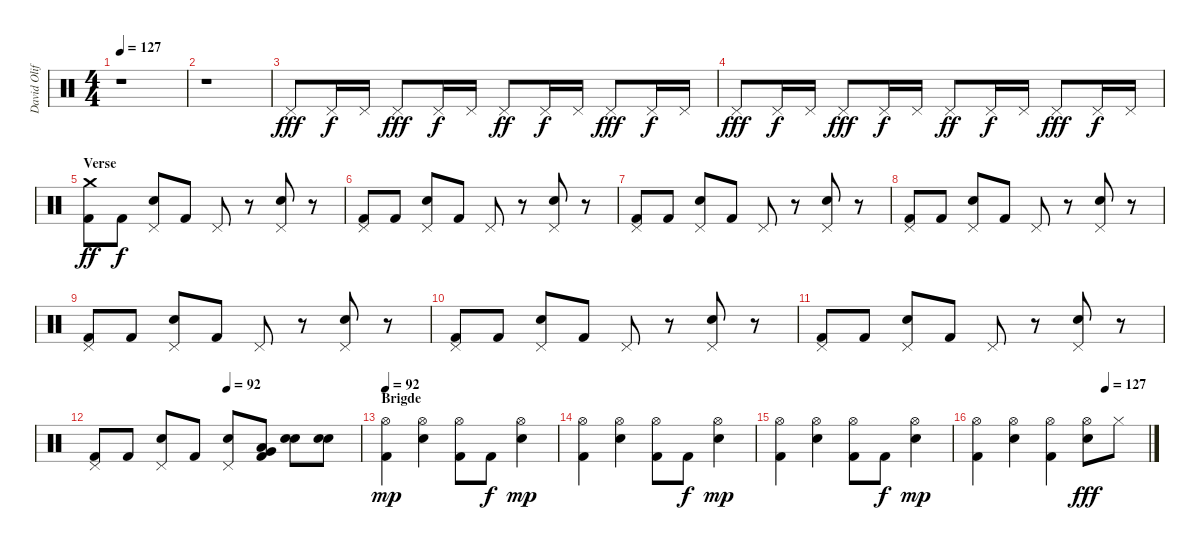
\track ("David Oliffe" "David Olif") {instrument percussion}
\staff {score}
\articulation defaults
\ts (4 4)
\tempo 127
\clef neutral
\ks c
r.1{dy f} |
r.1 |
"Pedal Hi-Hat (hit)".8{dy fff} "Pedal Hi-Hat (hit)".16{dy f} "Pedal Hi-Hat (hit)".16 "Pedal Hi-Hat (hit)".8{dy fff} "Pedal Hi-Hat (hit)".16{dy f} "Pedal Hi-Hat (hit)".16 "Pedal Hi-Hat (hit)".8{dy ff} "Pedal Hi-Hat (hit)".16{dy f} "Pedal Hi-Hat (hit)".16 "Pedal Hi-Hat (hit)".8{dy fff} "Pedal Hi-Hat (hit)".16{dy f} "Pedal Hi-Hat (hit)".16 |
"Pedal Hi-Hat (hit)".8{dy fff} "Pedal Hi-Hat (hit)".16{dy f} "Pedal Hi-Hat (hit)".16 "Pedal Hi-Hat (hit)".8{dy fff} "Pedal Hi-Hat (hit)".16{dy f} "Pedal Hi-Hat (hit)".16 "Pedal Hi-Hat (hit)".8{dy ff} "Pedal Hi-Hat (hit)".16{dy f} "Pedal Hi-Hat (hit)".16 "Pedal Hi-Hat (hit)".8{dy fff} "Pedal Hi-Hat (hit)".16{dy f} "Pedal Hi-Hat (hit)".16 |
\section ("" "Verse")
("Crash medium (hit)" "Kick (hit) 2").8{dy ff} "Kick (hit) 2".8{dy f} ("Pedal Hi-Hat (hit)" "Electric Snare (hit)").8 "Kick (hit) 2".8 "Pedal Hi-Hat (hit)".8 r.8 ("Pedal Hi-Hat (hit)" "Electric Snare (hit)").8 r.8 |
("Pedal Hi-Hat (hit)" "Kick (hit) 2").8 "Kick (hit) 2".8 ("Pedal Hi-Hat (hit)" "Electric Snare (hit)").8 "Kick (hit) 2".8 "Pedal Hi-Hat (hit)".8 r.8 ("Pedal Hi-Hat (hit)" "Electric Snare (hit)").8 r.8 |
("Pedal Hi-Hat (hit)" "Kick (hit) 2").8 "Kick (hit) 2".8 ("Pedal Hi-Hat (hit)" "Electric Snare (hit)").8 "Kick (hit) 2".8 "Pedal Hi-Hat (hit)".8 r.8 ("Pedal Hi-Hat (hit)" "Electric Snare (hit)").8 r.8 |
("Pedal Hi-Hat (hit)" "Kick (hit) 2").8 "Kick (hit) 2".8 ("Pedal Hi-Hat (hit)" "Electric Snare (hit)").8 "Kick (hit) 2".8 "Pedal Hi-Hat (hit)".8 r.8 ("Pedal Hi-Hat (hit)" "Electric Snare (hit)").8 r.8 |
("Pedal Hi-Hat (hit)" "Kick (hit) 2").8 "Kick (hit) 2".8 ("Pedal Hi-Hat (hit)" "Electric Snare (hit)").8 "Kick (hit) 2".8 "Pedal Hi-Hat (hit)".8 r.8 ("Pedal Hi-Hat (hit)" "Electric Snare (hit)").8 r.8 |
("Pedal Hi-Hat (hit)" "Kick (hit) 2").8 "Kick (hit) 2".8 ("Pedal Hi-Hat (hit)" "Electric Snare (hit)").8 "Kick (hit) 2".8 "Pedal Hi-Hat (hit)".8 r.8 ("Pedal Hi-Hat (hit)" "Electric Snare (hit)").8 r.8 |
("Pedal Hi-Hat (hit)" "Kick (hit) 2").8 "Kick (hit) 2".8 ("Pedal Hi-Hat (hit)" "Electric Snare (hit)").8 "Kick (hit) 2".8 "Pedal Hi-Hat (hit)".8 r.8 ("Pedal Hi-Hat (hit)" "Electric Snare (hit)").8 r.8 |
\tempo (92 0.5)
("Pedal Hi-Hat (hit)" "Kick (hit) 2").8 "Kick (hit) 2".8 ("Pedal Hi-Hat (hit)" "Electric Snare (hit)").8 "Kick (hit) 2".8 ("Pedal Hi-Hat (hit)" "Electric Snare (hit)").8 ("Low Tom (hit)" "Very Low Tom (hit)" "Kick (hit) 2").8 ("Electric Snare (hit)" "Electric Snare (hit)").8{bu 120} ("Electric Snare (hit)" "Electric Snare (hit)").8{bu 120} |
\section ("" "Brigde")
\tempo 92
("Hi-Hat (open)" "Kick (hit) 2").4{dy mp} ("Hi-Hat (open)" "Electric Snare (hit)").4 ("Hi-Hat (open)" "Kick (hit) 2").8 "Kick (hit) 2".8{dy f} ("Hi-Hat (open)" "Electric Snare (hit)").4{dy mp} |
("Hi-Hat (open)" "Kick (hit) 2").4 ("Hi-Hat (open)" "Electric Snare (hit)").4 ("Hi-Hat (open)" "Kick (hit) 2").8 "Kick (hit) 2".8{dy f} ("Hi-Hat (open)" "Electric Snare (hit)").4{dy mp} |
("Hi-Hat (open)" "Kick (hit) 2").4 ("Hi-Hat (open)" "Electric Snare (hit)").4 ("Hi-Hat (open)" "Kick (hit) 2").8 "Kick (hit) 2".8{dy f} ("Hi-Hat (open)" "Electric Snare (hit)").4{dy mp} |
\tempo (127 0.75)
("Hi-Hat (open)" "Kick (hit) 2").4 ("Hi-Hat (open)" "Electric Snare (hit)").4 ("Hi-Hat (open)" "Kick (hit) 2").4 ("Hi-Hat (open)" "Electric Snare (hit)").8{dy fff} "Hi-Hat (closed)".8
